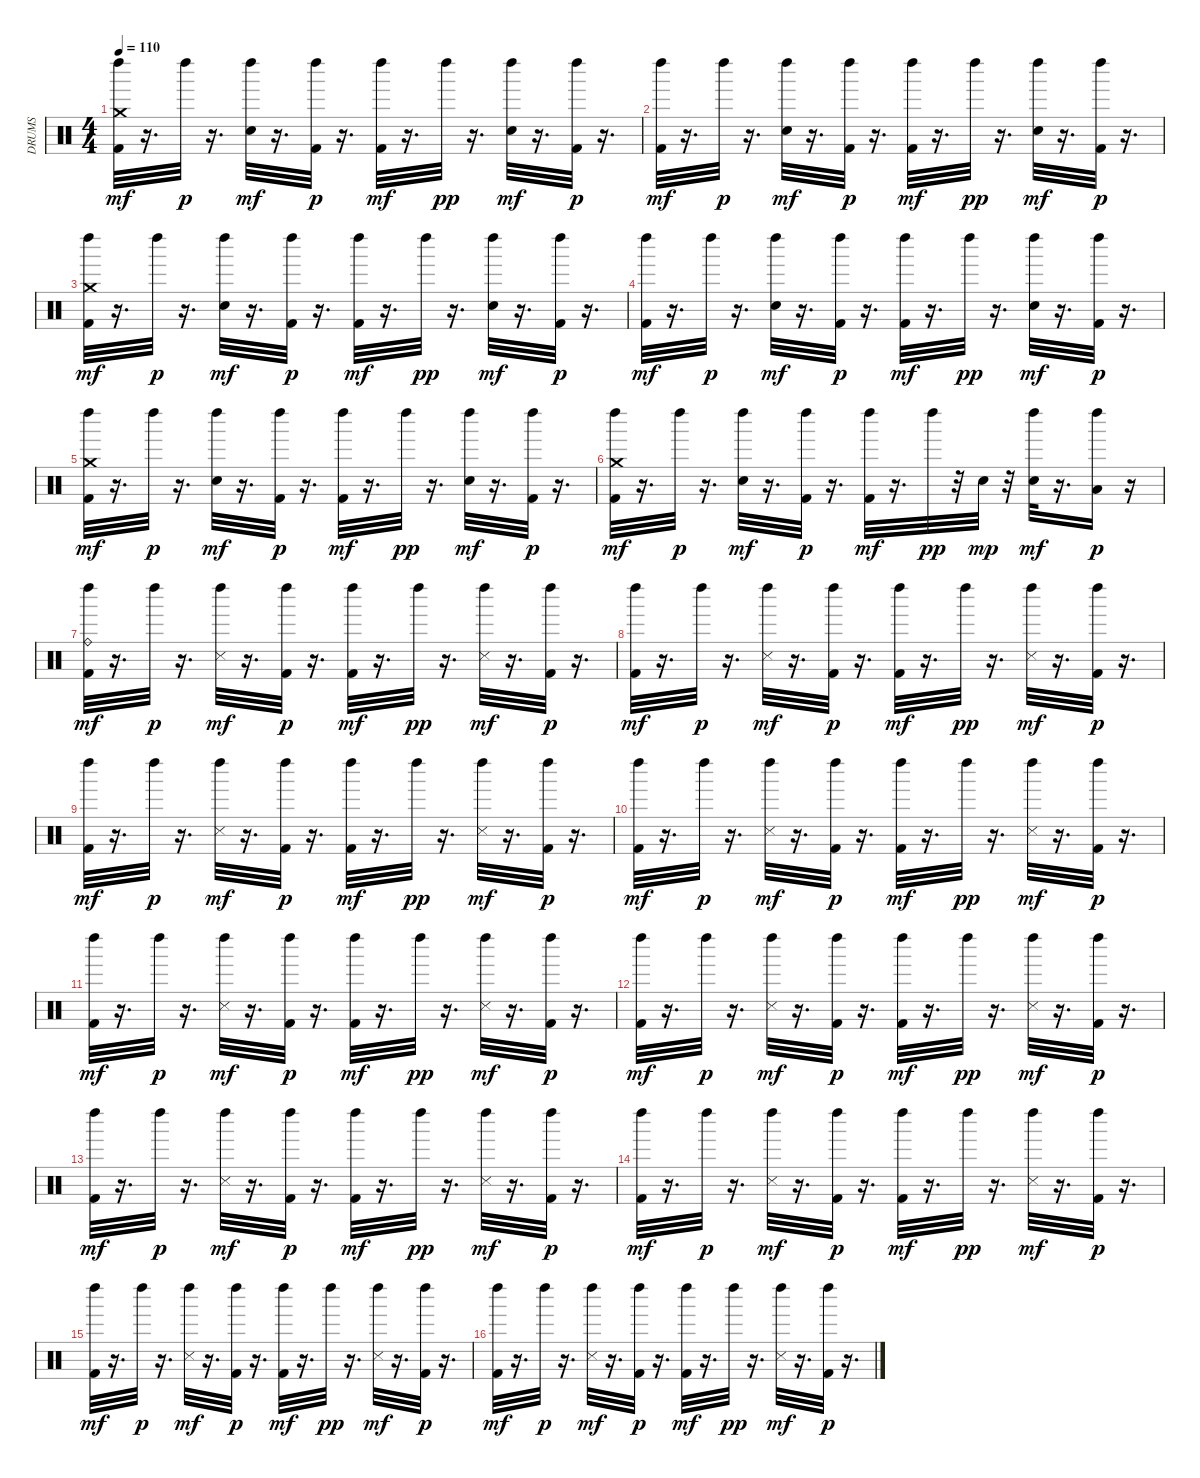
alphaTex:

\track ("DRUMS" "DRUMS") {instrument percussion}
\staff {score}
\articulation defaults
\ts (4 4)
\tempo 110
\clef neutral
\ks c
("Kick (hit) 2" "Crash medium (hit)" "Left Maraca (hit)").32{dy mf} r.16{d} "Left Maraca (hit)".32{dy p} r.16{d} ("Snare (hit) 2" "Left Maraca (hit)").32{dy mf} r.16{d} ("Kick (hit) 2" "Left Maraca (hit)").32{dy p} r.16{d} ("Kick (hit) 2" "Left Maraca (hit)").32{dy mf} r.16{d} "Left Maraca (hit)".32{dy pp} r.16{d} ("Snare (hit) 2" "Left Maraca (hit)").32{dy mf} r.16{d} ("Kick (hit) 2" "Left Maraca (hit)").32{dy p} r.16{d} |
("Kick (hit) 2" "Left Maraca (hit)").32{dy mf} r.16{d} "Left Maraca (hit)".32{dy p} r.16{d} ("Snare (hit) 2" "Left Maraca (hit)").32{dy mf} r.16{d} ("Kick (hit) 2" "Left Maraca (hit)").32{dy p} r.16{d} ("Kick (hit) 2" "Left Maraca (hit)").32{dy mf} r.16{d} "Left Maraca (hit)".32{dy pp} r.16{d} ("Snare (hit) 2" "Left Maraca (hit)").32{dy mf} r.16{d} ("Kick (hit) 2" "Left Maraca (hit)").32{dy p} r.16{d} |
("Kick (hit) 2" "Crash medium (hit)" "Left Maraca (hit)").32{dy mf} r.16{d} "Left Maraca (hit)".32{dy p} r.16{d} ("Snare (hit) 2" "Left Maraca (hit)").32{dy mf} r.16{d} ("Kick (hit) 2" "Left Maraca (hit)").32{dy p} r.16{d} ("Kick (hit) 2" "Left Maraca (hit)").32{dy mf} r.16{d} "Left Maraca (hit)".32{dy pp} r.16{d} ("Snare (hit) 2" "Left Maraca (hit)").32{dy mf} r.16{d} ("Kick (hit) 2" "Left Maraca (hit)").32{dy p} r.16{d} |
("Kick (hit) 2" "Left Maraca (hit)").32{dy mf} r.16{d} "Left Maraca (hit)".32{dy p} r.16{d} ("Snare (hit) 2" "Left Maraca (hit)").32{dy mf} r.16{d} ("Kick (hit) 2" "Left Maraca (hit)").32{dy p} r.16{d} ("Kick (hit) 2" "Left Maraca (hit)").32{dy mf} r.16{d} "Left Maraca (hit)".32{dy pp} r.16{d} ("Snare (hit) 2" "Left Maraca (hit)").32{dy mf} r.16{d} ("Kick (hit) 2" "Left Maraca (hit)").32{dy p} r.16{d} |
("Kick (hit) 2" "Crash medium (hit)" "Left Maraca (hit)").32{dy mf} r.16{d} "Left Maraca (hit)".32{dy p} r.16{d} ("Snare (hit) 2" "Left Maraca (hit)").32{dy mf} r.16{d} ("Kick (hit) 2" "Left Maraca (hit)").32{dy p} r.16{d} ("Kick (hit) 2" "Left Maraca (hit)").32{dy mf} r.16{d} "Left Maraca (hit)".32{dy pp} r.16{d} ("Snare (hit) 2" "Left Maraca (hit)").32{dy mf} r.16{d} ("Kick (hit) 2" "Left Maraca (hit)").32{dy p} r.16{d} |
("Kick (hit) 2" "Crash medium (hit)" "Left Maraca (hit)").32{dy mf} r.16{d} "Left Maraca (hit)".32{dy p} r.16{d} ("Snare (hit) 2" "Left Maraca (hit)").32{dy mf} r.16{d} ("Kick (hit) 2" "Left Maraca (hit)").32{dy p} r.16{d} ("Kick (hit) 2" "Left Maraca (hit)").32{dy mf} r.16{d} "Left Maraca (hit)".32{dy pp} r.32 "Snare (hit) 2".32{dy mp} r.32 ("Snare (hit) 2" "Left Maraca (hit)").32{dy mf} r.16{d} ("Low Tom (hit)" "Left Maraca (hit)").16{dy p} r.16 |
("Kick (hit) 2" "Ride (bell)" "Left Maraca (hit)").32{dy mf} r.16{d} "Left Maraca (hit)".32{dy p} r.16{d} ("Snare (side stick) 3" "Left Maraca (hit)").32{dy mf} r.16{d} ("Kick (hit) 2" "Left Maraca (hit)").32{dy p} r.16{d} ("Kick (hit) 2" "Left Maraca (hit)").32{dy mf} r.16{d} "Left Maraca (hit)".32{dy pp} r.16{d} ("Snare (side stick) 3" "Left Maraca (hit)").32{dy mf} r.16{d} ("Kick (hit) 2" "Left Maraca (hit)").32{dy p} r.16{d} |
("Kick (hit) 2" "Left Maraca (hit)").32{dy mf} r.16{d} "Left Maraca (hit)".32{dy p} r.16{d} ("Snare (side stick) 3" "Left Maraca (hit)").32{dy mf} r.16{d} ("Kick (hit) 2" "Left Maraca (hit)").32{dy p} r.16{d} ("Kick (hit) 2" "Left Maraca (hit)").32{dy mf} r.16{d} "Left Maraca (hit)".32{dy pp} r.16{d} ("Snare (side stick) 3" "Left Maraca (hit)").32{dy mf} r.16{d} ("Kick (hit) 2" "Left Maraca (hit)").32{dy p} r.16{d} |
("Kick (hit) 2" "Left Maraca (hit)").32{dy mf} r.16{d} "Left Maraca (hit)".32{dy p} r.16{d} ("Snare (side stick) 3" "Left Maraca (hit)").32{dy mf} r.16{d} ("Kick (hit) 2" "Left Maraca (hit)").32{dy p} r.16{d} ("Kick (hit) 2" "Left Maraca (hit)").32{dy mf} r.16{d} "Left Maraca (hit)".32{dy pp} r.16{d} ("Snare (side stick) 3" "Left Maraca (hit)").32{dy mf} r.16{d} ("Kick (hit) 2" "Left Maraca (hit)").32{dy p} r.16{d} |
("Kick (hit) 2" "Left Maraca (hit)").32{dy mf} r.16{d} "Left Maraca (hit)".32{dy p} r.16{d} ("Snare (side stick) 3" "Left Maraca (hit)").32{dy mf} r.16{d} ("Kick (hit) 2" "Left Maraca (hit)").32{dy p} r.16{d} ("Kick (hit) 2" "Left Maraca (hit)").32{dy mf} r.16{d} "Left Maraca (hit)".32{dy pp} r.16{d} ("Snare (side stick) 3" "Left Maraca (hit)").32{dy mf} r.16{d} ("Kick (hit) 2" "Left Maraca (hit)").32{dy p} r.16{d} |
("Kick (hit) 2" "Left Maraca (hit)").32{dy mf} r.16{d} "Left Maraca (hit)".32{dy p} r.16{d} ("Snare (side stick) 3" "Left Maraca (hit)").32{dy mf} r.16{d} ("Kick (hit) 2" "Left Maraca (hit)").32{dy p} r.16{d} ("Kick (hit) 2" "Left Maraca (hit)").32{dy mf} r.16{d} "Left Maraca (hit)".32{dy pp} r.16{d} ("Snare (side stick) 3" "Left Maraca (hit)").32{dy mf} r.16{d} ("Kick (hit) 2" "Left Maraca (hit)").32{dy p} r.16{d} |
("Kick (hit) 2" "Left Maraca (hit)").32{dy mf} r.16{d} "Left Maraca (hit)".32{dy p} r.16{d} ("Snare (side stick) 3" "Left Maraca (hit)").32{dy mf} r.16{d} ("Kick (hit) 2" "Left Maraca (hit)").32{dy p} r.16{d} ("Kick (hit) 2" "Left Maraca (hit)").32{dy mf} r.16{d} "Left Maraca (hit)".32{dy pp} r.16{d} ("Snare (side stick) 3" "Left Maraca (hit)").32{dy mf} r.16{d} ("Kick (hit) 2" "Left Maraca (hit)").32{dy p} r.16{d} |
("Kick (hit) 2" "Left Maraca (hit)").32{dy mf} r.16{d} "Left Maraca (hit)".32{dy p} r.16{d} ("Snare (side stick) 3" "Left Maraca (hit)").32{dy mf} r.16{d} ("Kick (hit) 2" "Left Maraca (hit)").32{dy p} r.16{d} ("Kick (hit) 2" "Left Maraca (hit)").32{dy mf} r.16{d} "Left Maraca (hit)".32{dy pp} r.16{d} ("Snare (side stick) 3" "Left Maraca (hit)").32{dy mf} r.16{d} ("Kick (hit) 2" "Left Maraca (hit)").32{dy p} r.16{d} |
("Kick (hit) 2" "Left Maraca (hit)").32{dy mf} r.16{d} "Left Maraca (hit)".32{dy p} r.16{d} ("Snare (side stick) 3" "Left Maraca (hit)").32{dy mf} r.16{d} ("Kick (hit) 2" "Left Maraca (hit)").32{dy p} r.16{d} ("Kick (hit) 2" "Left Maraca (hit)").32{dy mf} r.16{d} "Left Maraca (hit)".32{dy pp} r.16{d} ("Snare (side stick) 3" "Left Maraca (hit)").32{dy mf} r.16{d} ("Kick (hit) 2" "Left Maraca (hit)").32{dy p} r.16{d} |
("Kick (hit) 2" "Left Maraca (hit)").32{dy mf} r.16{d} "Left Maraca (hit)".32{dy p} r.16{d} ("Snare (side stick) 3" "Left Maraca (hit)").32{dy mf} r.16{d} ("Kick (hit) 2" "Left Maraca (hit)").32{dy p} r.16{d} ("Kick (hit) 2" "Left Maraca (hit)").32{dy mf} r.16{d} "Left Maraca (hit)".32{dy pp} r.16{d} ("Snare (side stick) 3" "Left Maraca (hit)").32{dy mf} r.16{d} ("Kick (hit) 2" "Left Maraca (hit)").32{dy p} r.16{d} |
("Kick (hit) 2" "Left Maraca (hit)").32{dy mf} r.16{d} "Left Maraca (hit)".32{dy p} r.16{d} ("Snare (side stick) 3" "Left Maraca (hit)").32{dy mf} r.16{d} ("Kick (hit) 2" "Left Maraca (hit)").32{dy p} r.16{d} ("Kick (hit) 2" "Left Maraca (hit)").32{dy mf} r.16{d} "Left Maraca (hit)".32{dy pp} r.16{d} ("Snare (side stick) 3" "Left Maraca (hit)").32{dy mf} r.16{d} ("Kick (hit) 2" "Left Maraca (hit)").32{dy p} r.16{d}
